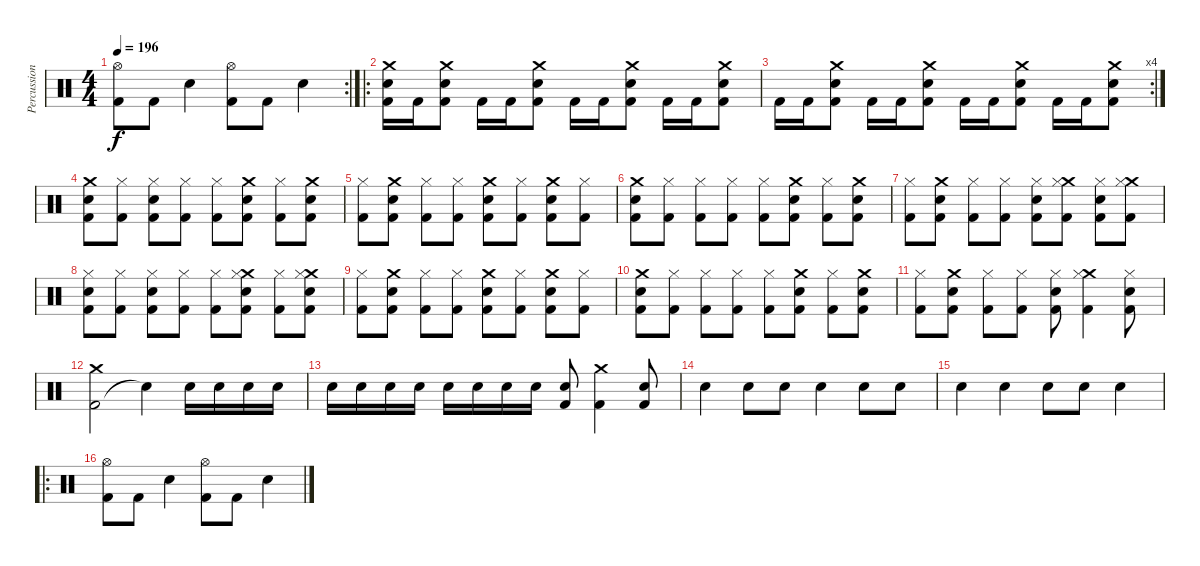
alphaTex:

\track ("Percussions" "Percussion") {instrument percussion}
\staff {score}
\articulation defaults
\rc 2
\ts (4 4)
\tempo 196
\clef neutral
\ks c
("Kick (hit) 2" "Hi-Hat (open)").8{dy f} "Kick (hit) 2".8 "Snare (hit) 2".4 ("Kick (hit) 2" "Hi-Hat (open)").8 "Kick (hit) 2".8 "Snare (hit) 2".4 |
\ro
("Kick (hit) 2" "Snare (hit) 2" "Crash medium (hit)").16 "Kick (hit) 2".16 ("Kick (hit) 2" "Snare (hit) 2" "Crash medium (hit)").8 "Kick (hit) 2".16 "Kick (hit) 2".16 ("Kick (hit) 2" "Snare (hit) 2" "Crash medium (hit)").8 "Kick (hit) 2".16 "Kick (hit) 2".16 ("Kick (hit) 2" "Snare (hit) 2" "Crash medium (hit)").8 "Kick (hit) 2".16 "Kick (hit) 2".16 ("Kick (hit) 2" "Snare (hit) 2" "Crash medium (hit)").8 |
\rc 4 "Kick (hit) 2".16 "Kick (hit) 2".16
("Kick (hit) 2" "Snare (hit) 2" "Crash medium (hit)").8 "Kick (hit) 2".16 "Kick (hit) 2".16 ("Kick (hit) 2" "Snare (hit) 2" "Crash medium (hit)").8 "Kick (hit) 2".16 "Kick (hit) 2".16 ("Kick (hit) 2" "Snare (hit) 2" "Crash medium (hit)").8 "Kick (hit) 2".16 "Kick (hit) 2".16 ("Kick (hit) 2" "Snare (hit) 2" "Crash medium (hit)").8 |
("Kick (hit) 2" "Snare (hit) 2" "Crash medium (hit)").8 ("Kick (hit) 2" "Hi-Hat (closed)").8 ("Kick (hit) 2" "Snare (hit) 2" "Hi-Hat (closed)").8 ("Kick (hit) 2" "Hi-Hat (closed)").8 ("Kick (hit) 2" "Hi-Hat (closed)").8 ("Kick (hit) 2" "Snare (hit) 2" "Crash medium (hit)").8 ("Kick (hit) 2" "Hi-Hat (closed)").8 ("Kick (hit) 2" "Snare (hit) 2" "Crash medium (hit)").8 |
("Kick (hit) 2" "Hi-Hat (closed)").8 ("Kick (hit) 2" "Snare (hit) 2" "Crash medium (hit)").8 ("Kick (hit) 2" "Hi-Hat (closed)").8 ("Kick (hit) 2" "Hi-Hat (closed)").8 ("Kick (hit) 2" "Snare (hit) 2" "Crash medium (hit)").8 ("Kick (hit) 2" "Hi-Hat (closed)").8 ("Kick (hit) 2" "Snare (hit) 2" "Crash medium (hit)").8 ("Kick (hit) 2" "Hi-Hat (closed)").8 |
("Kick (hit) 2" "Snare (hit) 2" "Crash medium (hit)").8 ("Kick (hit) 2" "Hi-Hat (closed)").8 ("Kick (hit) 2" "Hi-Hat (closed)").8 ("Kick (hit) 2" "Hi-Hat (closed)").8 ("Kick (hit) 2" "Hi-Hat (closed)").8 ("Kick (hit) 2" "Crash medium (hit)" "Snare (hit) 2").8 ("Kick (hit) 2" "Hi-Hat (closed)").8 ("Kick (hit) 2" "Crash medium (hit)" "Snare (hit) 2").8 |
("Kick (hit) 2" "Hi-Hat (closed)").8 ("Kick (hit) 2" "Snare (hit) 2" "Crash medium (hit)").8 ("Kick (hit) 2" "Hi-Hat (closed)").8 ("Kick (hit) 2" "Hi-Hat (closed)").8 ("Kick (hit) 2" "Snare (hit) 2" "Hi-Hat (closed)").8 ("Kick (hit) 2" "Crash medium (hit)" "Hi-Hat (closed)").8 ("Kick (hit) 2" "Snare (hit) 2" "Hi-Hat (closed)").8 ("Kick (hit) 2" "Crash medium (hit)" "Hi-Hat (closed)").8 |
("Kick (hit) 2" "Snare (hit) 2" "Hi-Hat (closed)").8 ("Kick (hit) 2" "Hi-Hat (closed)").8 ("Kick (hit) 2" "Snare (hit) 2" "Hi-Hat (closed)").8 ("Kick (hit) 2" "Hi-Hat (closed)").8 ("Kick (hit) 2" "Hi-Hat (closed)").8 ("Kick (hit) 2" "Snare (hit) 2" "Crash medium (hit)" "Hi-Hat (closed)").8 ("Kick (hit) 2" "Hi-Hat (closed)").8 ("Kick (hit) 2" "Snare (hit) 2" "Crash medium (hit)" "Hi-Hat (closed)").8 |
("Kick (hit) 2" "Hi-Hat (closed)").8 ("Kick (hit) 2" "Snare (hit) 2" "Crash medium (hit)").8 ("Kick (hit) 2" "Hi-Hat (closed)").8 ("Kick (hit) 2" "Hi-Hat (closed)").8 ("Kick (hit) 2" "Snare (hit) 2" "Crash medium (hit)").8 ("Kick (hit) 2" "Hi-Hat (closed)").8 ("Kick (hit) 2" "Snare (hit) 2" "Crash medium (hit)").8 ("Kick (hit) 2" "Hi-Hat (closed)").8 |
("Kick (hit) 2" "Snare (hit) 2" "Crash medium (hit)").8 ("Kick (hit) 2" "Hi-Hat (closed)").8 ("Kick (hit) 2" "Hi-Hat (closed)").8 ("Kick (hit) 2" "Hi-Hat (closed)").8 ("Kick (hit) 2" "Hi-Hat (closed)").8 ("Kick (hit) 2" "Crash medium (hit)" "Snare (hit) 2").8 ("Kick (hit) 2" "Hi-Hat (closed)").8 ("Kick (hit) 2" "Crash medium (hit)" "Snare (hit) 2").8 |
("Kick (hit) 2" "Hi-Hat (closed)").8 ("Kick (hit) 2" "Snare (hit) 2" "Crash medium (hit)").8 ("Kick (hit) 2" "Hi-Hat (closed)").8 ("Kick (hit) 2" "Hi-Hat (closed)").8 ("Kick (hit) 2" "Snare (hit) 2" "Hi-Hat (closed)").8 ("Kick (hit) 2" "Crash medium (hit)" "Hi-Hat (closed)").4 ("Kick (hit) 2" "Snare (hit) 2" "Hi-Hat (closed)").8 |
("Kick (hit) 2" "Crash medium (hit)").2 "Snare (hit)"{t}.4 "Snare (hit) 2".16 "Snare (hit) 2".16 "Snare (hit) 2".16 "Snare (hit) 2".16 |
"Snare (hit) 2".16 "Snare (hit) 2".16 "Snare (hit) 2".16 "Snare (hit) 2".16 "Snare (hit) 2".16 "Snare (hit) 2".16 "Snare (hit) 2".16 "Snare (hit) 2".16 ("Kick (hit) 2" "Snare (hit) 2").8 ("Kick (hit) 2" "Crash medium (hit)").4 ("Kick (hit) 2" "Snare (hit) 2").8 |
"Snare (hit) 2".4 "Snare (hit) 2".8 "Snare (hit) 2".8 "Snare (hit) 2".4 "Snare (hit) 2".8 "Snare (hit) 2".8 |
"Snare (hit) 2".4 "Snare (hit) 2".4 "Snare (hit) 2".8 "Snare (hit) 2".8 "Snare (hit) 2".4 |
\ro
("Kick (hit) 2" "Hi-Hat (open)").8 "Kick (hit) 2".8 "Snare (hit) 2".4 ("Kick (hit) 2" "Hi-Hat (open)").8 "Kick (hit) 2".8 "Snare (hit) 2".4
